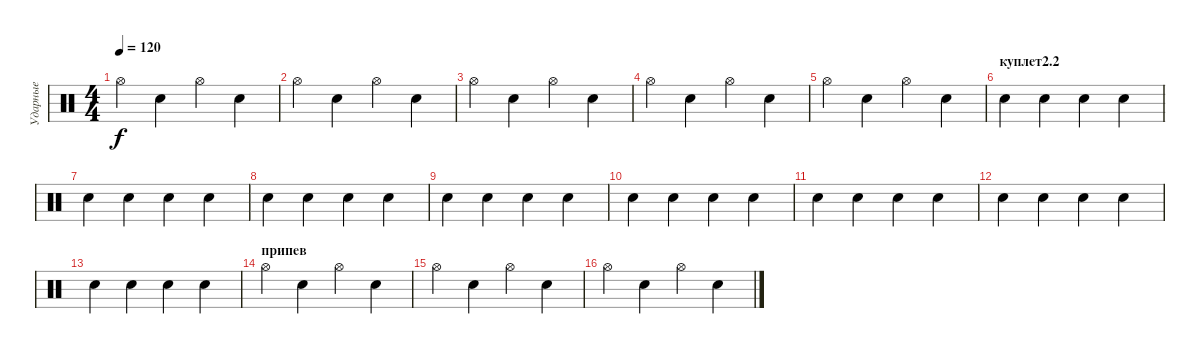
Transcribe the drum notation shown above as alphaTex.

\track ("Ударные" "Ударные") {instrument percussion}
\staff {score}
\articulation defaults
\ts (4 4)
\tempo 120
\clef neutral
\ks c "Hi-Hat (open)".4{dy f} "Electric Snare (hit)".4 "Hi-Hat (open)".4 "Electric Snare (hit)".4
|
"Hi-Hat (open)".4 "Electric Snare (hit)".4 "Hi-Hat (open)".4 "Electric Snare (hit)".4 |
"Hi-Hat (open)".4 "Electric Snare (hit)".4 "Hi-Hat (open)".4 "Electric Snare (hit)".4 |
"Hi-Hat (open)".4 "Electric Snare (hit)".4 "Hi-Hat (open)".4 "Electric Snare (hit)".4 |
"Hi-Hat (open)".4 "Electric Snare (hit)".4 "Hi-Hat (open)".4 "Electric Snare (hit)".4 |
\section ("" "куплет2.2")
"Electric Snare (hit)".4 "Electric Snare (hit)".4 "Electric Snare (hit)".4 "Electric Snare (hit)".4 |
"Electric Snare (hit)".4 "Electric Snare (hit)".4 "Electric Snare (hit)".4 "Electric Snare (hit)".4 |
"Electric Snare (hit)".4 "Electric Snare (hit)".4 "Electric Snare (hit)".4 "Electric Snare (hit)".4 |
"Electric Snare (hit)".4 "Electric Snare (hit)".4 "Electric Snare (hit)".4 "Electric Snare (hit)".4 |
"Electric Snare (hit)".4 "Electric Snare (hit)".4 "Electric Snare (hit)".4 "Electric Snare (hit)".4 |
"Electric Snare (hit)".4 "Electric Snare (hit)".4 "Electric Snare (hit)".4 "Electric Snare (hit)".4 |
"Electric Snare (hit)".4 "Electric Snare (hit)".4 "Electric Snare (hit)".4 "Electric Snare (hit)".4 |
"Electric Snare (hit)".4 "Electric Snare (hit)".4 "Electric Snare (hit)".4 "Electric Snare (hit)".4 |
\section ("" "припев")
"Hi-Hat (open)".4 "Electric Snare (hit)".4 "Hi-Hat (open)".4 "Electric Snare (hit)".4 |
"Hi-Hat (open)".4 "Electric Snare (hit)".4 "Hi-Hat (open)".4 "Electric Snare (hit)".4 |
"Hi-Hat (open)".4 "Electric Snare (hit)".4 "Hi-Hat (open)".4 "Electric Snare (hit)".4
